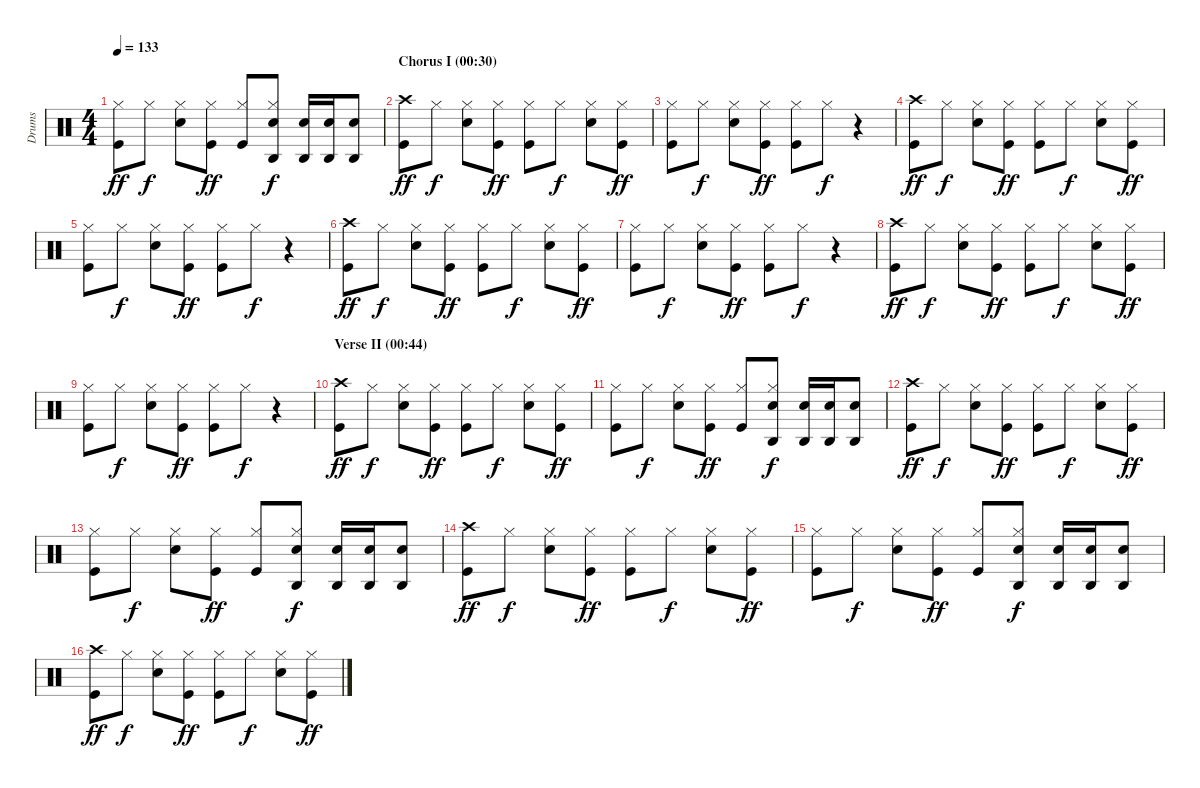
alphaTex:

\track ("Drums" "Drums") {instrument percussion}
\staff {score}
\articulation defaults
\ts (4 4)
\tempo 133
\clef neutral
\ks c
("Hi-Hat (closed)" "Kick (hit)").8{dy ff} "Hi-Hat (closed)".8{dy f} ("Hi-Hat (closed)" "Electric Snare (hit)").8 ("Hi-Hat (closed)" "Kick (hit)").8{dy ff} ("Hi-Hat (closed)" "Kick (hit)").8 ("Agogo high (hit)" "Hi-Hat (closed)" "Electric Snare (hit)").8{dy f} ("Agogo high (hit)" "Electric Snare (hit)").16 ("Agogo high (hit)" "Electric Snare (hit)").16 ("Agogo high (hit)" "Electric Snare (hit)").8 |
\section ("" "Chorus I (00:30)")
("Crash high (hit)" "Kick (hit)").8{dy ff} "Hi-Hat (closed)".8{dy f} ("Hi-Hat (closed)" "Electric Snare (hit)").8 ("Hi-Hat (closed)" "Kick (hit)").8{dy ff} ("Hi-Hat (closed)" "Kick (hit)").8 "Hi-Hat (closed)".8{dy f} ("Hi-Hat (closed)" "Electric Snare (hit)").8 ("Hi-Hat (closed)" "Kick (hit)").8{dy ff} |
("Hi-Hat (closed)" "Kick (hit)").8 "Hi-Hat (closed)".8{dy f} ("Hi-Hat (closed)" "Electric Snare (hit)").8 ("Hi-Hat (closed)" "Kick (hit)").8{dy ff} ("Hi-Hat (closed)" "Kick (hit)").8 "Hi-Hat (closed)".8{dy f} r.4 |
("Crash high (hit)" "Kick (hit)").8{dy ff} "Hi-Hat (closed)".8{dy f} ("Hi-Hat (closed)" "Electric Snare (hit)").8 ("Hi-Hat (closed)" "Kick (hit)").8{dy ff} ("Hi-Hat (closed)" "Kick (hit)").8 "Hi-Hat (closed)".8{dy f} ("Hi-Hat (closed)" "Electric Snare (hit)").8 ("Hi-Hat (closed)" "Kick (hit)").8{dy ff} |
("Hi-Hat (closed)" "Kick (hit)").8 "Hi-Hat (closed)".8{dy f} ("Hi-Hat (closed)" "Electric Snare (hit)").8 ("Hi-Hat (closed)" "Kick (hit)").8{dy ff} ("Hi-Hat (closed)" "Kick (hit)").8 "Hi-Hat (closed)".8{dy f} r.4 |
("Crash high (hit)" "Kick (hit)").8{dy ff} "Hi-Hat (closed)".8{dy f} ("Hi-Hat (closed)" "Electric Snare (hit)").8 ("Hi-Hat (closed)" "Kick (hit)").8{dy ff} ("Hi-Hat (closed)" "Kick (hit)").8 "Hi-Hat (closed)".8{dy f} ("Hi-Hat (closed)" "Electric Snare (hit)").8 ("Hi-Hat (closed)" "Kick (hit)").8{dy ff} |
("Hi-Hat (closed)" "Kick (hit)").8 "Hi-Hat (closed)".8{dy f} ("Hi-Hat (closed)" "Electric Snare (hit)").8 ("Hi-Hat (closed)" "Kick (hit)").8{dy ff} ("Hi-Hat (closed)" "Kick (hit)").8 "Hi-Hat (closed)".8{dy f} r.4 |
("Crash high (hit)" "Kick (hit)").8{dy ff} "Hi-Hat (closed)".8{dy f} ("Hi-Hat (closed)" "Electric Snare (hit)").8 ("Hi-Hat (closed)" "Kick (hit)").8{dy ff} ("Hi-Hat (closed)" "Kick (hit)").8 "Hi-Hat (closed)".8{dy f} ("Hi-Hat (closed)" "Electric Snare (hit)").8 ("Hi-Hat (closed)" "Kick (hit)").8{dy ff} |
("Hi-Hat (closed)" "Kick (hit)").8 "Hi-Hat (closed)".8{dy f} ("Hi-Hat (closed)" "Electric Snare (hit)").8 ("Hi-Hat (closed)" "Kick (hit)").8{dy ff} ("Hi-Hat (closed)" "Kick (hit)").8 "Hi-Hat (closed)".8{dy f} r.4 |
\section ("" "Verse II (00:44)")
("Crash high (hit)" "Kick (hit)").8{dy ff} "Hi-Hat (closed)".8{dy f} ("Hi-Hat (closed)" "Electric Snare (hit)").8 ("Hi-Hat (closed)" "Kick (hit)").8{dy ff} ("Hi-Hat (closed)" "Kick (hit)").8 "Hi-Hat (closed)".8{dy f} ("Hi-Hat (closed)" "Electric Snare (hit)").8 ("Hi-Hat (closed)" "Kick (hit)").8{dy ff} |
("Hi-Hat (closed)" "Kick (hit)").8 "Hi-Hat (closed)".8{dy f} ("Hi-Hat (closed)" "Electric Snare (hit)").8 ("Hi-Hat (closed)" "Kick (hit)").8{dy ff} ("Hi-Hat (closed)" "Kick (hit)").8 ("Agogo high (hit)" "Hi-Hat (closed)" "Electric Snare (hit)").8{dy f} ("Agogo high (hit)" "Electric Snare (hit)").16 ("Agogo high (hit)" "Electric Snare (hit)").16 ("Agogo high (hit)" "Electric Snare (hit)").8 |
("Crash high (hit)" "Kick (hit)").8{dy ff} "Hi-Hat (closed)".8{dy f} ("Hi-Hat (closed)" "Electric Snare (hit)").8 ("Hi-Hat (closed)" "Kick (hit)").8{dy ff} ("Hi-Hat (closed)" "Kick (hit)").8 "Hi-Hat (closed)".8{dy f} ("Hi-Hat (closed)" "Electric Snare (hit)").8 ("Hi-Hat (closed)" "Kick (hit)").8{dy ff} |
("Hi-Hat (closed)" "Kick (hit)").8 "Hi-Hat (closed)".8{dy f} ("Hi-Hat (closed)" "Electric Snare (hit)").8 ("Hi-Hat (closed)" "Kick (hit)").8{dy ff} ("Hi-Hat (closed)" "Kick (hit)").8 ("Agogo high (hit)" "Hi-Hat (closed)" "Electric Snare (hit)").8{dy f} ("Agogo high (hit)" "Electric Snare (hit)").16 ("Agogo high (hit)" "Electric Snare (hit)").16 ("Agogo high (hit)" "Electric Snare (hit)").8 |
("Crash high (hit)" "Kick (hit)").8{dy ff} "Hi-Hat (closed)".8{dy f} ("Hi-Hat (closed)" "Electric Snare (hit)").8 ("Hi-Hat (closed)" "Kick (hit)").8{dy ff} ("Hi-Hat (closed)" "Kick (hit)").8 "Hi-Hat (closed)".8{dy f} ("Hi-Hat (closed)" "Electric Snare (hit)").8 ("Hi-Hat (closed)" "Kick (hit)").8{dy ff} |
("Hi-Hat (closed)" "Kick (hit)").8 "Hi-Hat (closed)".8{dy f} ("Hi-Hat (closed)" "Electric Snare (hit)").8 ("Hi-Hat (closed)" "Kick (hit)").8{dy ff} ("Hi-Hat (closed)" "Kick (hit)").8 ("Agogo high (hit)" "Hi-Hat (closed)" "Electric Snare (hit)").8{dy f} ("Agogo high (hit)" "Electric Snare (hit)").16 ("Agogo high (hit)" "Electric Snare (hit)").16 ("Agogo high (hit)" "Electric Snare (hit)").8 |
("Crash high (hit)" "Kick (hit)").8{dy ff} "Hi-Hat (closed)".8{dy f} ("Hi-Hat (closed)" "Electric Snare (hit)").8 ("Hi-Hat (closed)" "Kick (hit)").8{dy ff} ("Hi-Hat (closed)" "Kick (hit)").8 "Hi-Hat (closed)".8{dy f} ("Hi-Hat (closed)" "Electric Snare (hit)").8 ("Hi-Hat (closed)" "Kick (hit)").8{dy ff}
